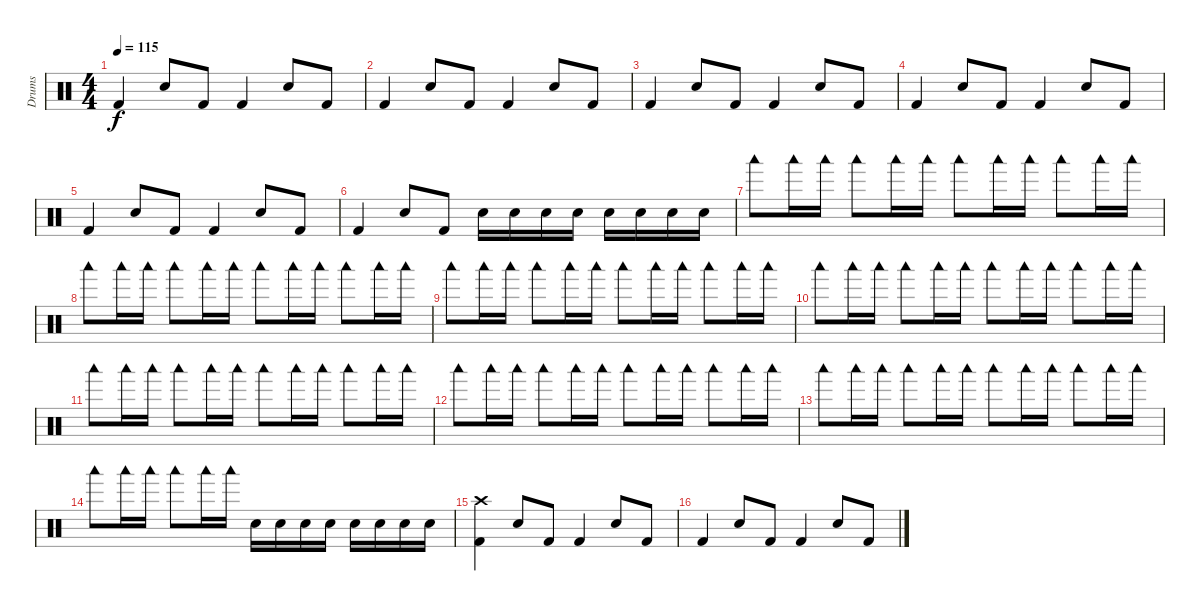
\track ("Drums" "Drums") {instrument percussion}
\staff {score}
\articulation defaults
\ts (4 4)
\tempo 115
\clef neutral
\ks c "Kick (hit) 2".4{dy f} "Snare (hit) 2".8 "Kick (hit) 2".8 "Kick (hit) 2".4 "Snare (hit) 2".8 "Kick (hit) 2".8
|
"Kick (hit) 2".4 "Snare (hit) 2".8 "Kick (hit) 2".8 "Kick (hit) 2".4 "Snare (hit) 2".8 "Kick (hit) 2".8 |
"Kick (hit) 2".4 "Snare (hit) 2".8 "Kick (hit) 2".8 "Kick (hit) 2".4 "Snare (hit) 2".8 "Kick (hit) 2".8 |
"Kick (hit) 2".4 "Snare (hit) 2".8 "Kick (hit) 2".8 "Kick (hit) 2".4 "Snare (hit) 2".8 "Kick (hit) 2".8 |
"Kick (hit) 2".4 "Snare (hit) 2".8 "Kick (hit) 2".8 "Kick (hit) 2".4 "Snare (hit) 2".8 "Kick (hit) 2".8 |
"Kick (hit) 2".4 "Snare (hit) 2".8 "Kick (hit) 2".8 "Snare (hit) 2".16 "Snare (hit) 2".16 "Snare (hit) 2".16 "Snare (hit) 2".16 "Snare (hit) 2".16 "Snare (hit) 2".16 "Snare (hit) 2".16 "Snare (hit) 2".16 |
"Woodblock low (hit)".8 "Woodblock low (hit)".16 "Woodblock low (hit)".16 "Woodblock low (hit)".8 "Woodblock low (hit)".16 "Woodblock low (hit)".16 "Woodblock low (hit)".8 "Woodblock low (hit)".16 "Woodblock low (hit)".16 "Woodblock low (hit)".8 "Woodblock low (hit)".16 "Woodblock low (hit)".16 |
"Woodblock low (hit)".8 "Woodblock low (hit)".16 "Woodblock low (hit)".16 "Woodblock low (hit)".8 "Woodblock low (hit)".16 "Woodblock low (hit)".16 "Woodblock low (hit)".8 "Woodblock low (hit)".16 "Woodblock low (hit)".16 "Woodblock low (hit)".8 "Woodblock low (hit)".16 "Woodblock low (hit)".16 |
"Woodblock low (hit)".8 "Woodblock low (hit)".16 "Woodblock low (hit)".16 "Woodblock low (hit)".8 "Woodblock low (hit)".16 "Woodblock low (hit)".16 "Woodblock low (hit)".8 "Woodblock low (hit)".16 "Woodblock low (hit)".16 "Woodblock low (hit)".8 "Woodblock low (hit)".16 "Woodblock low (hit)".16 |
"Woodblock low (hit)".8 "Woodblock low (hit)".16 "Woodblock low (hit)".16 "Woodblock low (hit)".8 "Woodblock low (hit)".16 "Woodblock low (hit)".16 "Woodblock low (hit)".8 "Woodblock low (hit)".16 "Woodblock low (hit)".16 "Woodblock low (hit)".8 "Woodblock low (hit)".16 "Woodblock low (hit)".16 |
"Woodblock low (hit)".8 "Woodblock low (hit)".16 "Woodblock low (hit)".16 "Woodblock low (hit)".8 "Woodblock low (hit)".16 "Woodblock low (hit)".16 "Woodblock low (hit)".8 "Woodblock low (hit)".16 "Woodblock low (hit)".16 "Woodblock low (hit)".8 "Woodblock low (hit)".16 "Woodblock low (hit)".16 |
"Woodblock low (hit)".8 "Woodblock low (hit)".16 "Woodblock low (hit)".16 "Woodblock low (hit)".8 "Woodblock low (hit)".16 "Woodblock low (hit)".16 "Woodblock low (hit)".8 "Woodblock low (hit)".16 "Woodblock low (hit)".16 "Woodblock low (hit)".8 "Woodblock low (hit)".16 "Woodblock low (hit)".16 |
"Woodblock low (hit)".8 "Woodblock low (hit)".16 "Woodblock low (hit)".16 "Woodblock low (hit)".8 "Woodblock low (hit)".16 "Woodblock low (hit)".16 "Woodblock low (hit)".8 "Woodblock low (hit)".16 "Woodblock low (hit)".16 "Woodblock low (hit)".8 "Woodblock low (hit)".16 "Woodblock low (hit)".16 |
"Woodblock low (hit)".8 "Woodblock low (hit)".16 "Woodblock low (hit)".16 "Woodblock low (hit)".8 "Woodblock low (hit)".16 "Woodblock low (hit)".16 "Snare (hit) 2".16 "Snare (hit) 2".16 "Snare (hit) 2".16 "Snare (hit) 2".16 "Snare (hit) 2".16 "Snare (hit) 2".16 "Snare (hit) 2".16 "Snare (hit) 2".16 |
("Crash high (hit)" "Kick (hit) 2").4 "Snare (hit) 2".8 "Kick (hit) 2".8 "Kick (hit) 2".4 "Snare (hit) 2".8 "Kick (hit) 2".8 |
"Kick (hit) 2".4 "Snare (hit) 2".8 "Kick (hit) 2".8 "Kick (hit) 2".4 "Snare (hit) 2".8 "Kick (hit) 2".8
